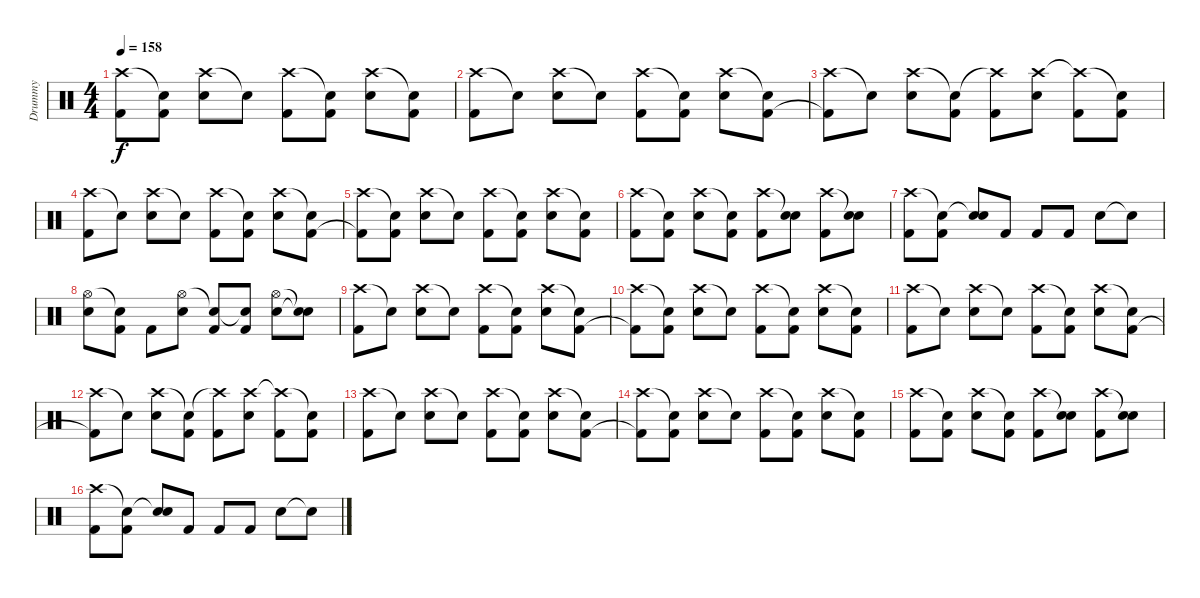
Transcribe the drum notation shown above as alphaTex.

\track ("Drummy" "Drummy") {instrument percussion bank 127}
\staff {score}
\articulation defaults
\ts (4 4)
\tempo 158
\clef neutral
\ks c
("Crash high (hit)" "Kick (hit) 2"{t}).8{dy f} ("Snare (hit)"{t} "Kick (hit) 2").8 ("Crash high (hit)" "Electric Snare (hit)").8 "Snare (hit)"{t}.8 ("Crash high (hit)" "Kick (hit) 2").8 ("Snare (hit)"{t} "Kick (hit) 2").8 ("Crash high (hit)" "Electric Snare (hit)").8 ("Snare (hit)"{t} "Kick (hit) 2").8 |
("Crash high (hit)" "Kick (hit) 2").8 "Snare (hit)"{t}.8 ("Crash high (hit)" "Electric Snare (hit)").8 "Snare (hit)"{t}.8 ("Crash high (hit)" "Kick (hit) 2").8 ("Snare (hit)"{t} "Kick (hit) 2").8 ("Crash high (hit)" "Electric Snare (hit)").8 ("Snare (hit)"{t} "Kick (hit) 2").8 |
("Crash high (hit)" "Kick (hit) 2"{t}).8 "Snare (hit)"{t}.8 ("Crash high (hit)" "Electric Snare (hit)").8 ("Snare (hit)"{t} "Kick (hit) 2").8 ("Crash high (hit)"{t} "Kick (hit) 2").8 ("Crash high (hit)" "Electric Snare (hit)").8 ("Crash high (hit)"{t} "Kick (hit) 2").8 ("Snare (hit)"{t} "Kick (hit) 2").8 |
("Crash high (hit)" "Kick (hit) 2").8 "Snare (hit)"{t}.8 ("Crash high (hit)" "Electric Snare (hit)").8 "Snare (hit)"{t}.8 ("Crash high (hit)" "Kick (hit) 2").8 ("Snare (hit)"{t} "Kick (hit) 2").8 ("Crash high (hit)" "Electric Snare (hit)").8 ("Snare (hit)"{t} "Kick (hit) 2").8 |
("Crash high (hit)" "Kick (hit) 2"{t}).8 ("Snare (hit)"{t} "Kick (hit) 2").8 ("Crash high (hit)" "Electric Snare (hit)").8 "Snare (hit)"{t}.8 ("Crash high (hit)" "Kick (hit) 2").8 ("Snare (hit)"{t} "Kick (hit) 2").8 ("Crash high (hit)" "Electric Snare (hit)").8 ("Snare (hit)"{t} "Kick (hit) 2").8 |
("Crash high (hit)" "Kick (hit) 2").8 ("Snare (hit)"{t} "Kick (hit) 2").8 ("Crash high (hit)" "Electric Snare (hit)").8 ("Snare (hit)"{t} "Kick (hit) 2").8 ("Crash high (hit)" "Kick (hit) 2").8 ("Snare (hit)"{t} "Electric Snare (hit)").8 ("Crash high (hit)" "Kick (hit) 2").8 ("Snare (hit)"{t} "Electric Snare (hit)").8 |
("Crash high (hit)" "Kick (hit) 2").8 ("Snare (hit)"{t} "Kick (hit) 2").8 ("Snare (hit)"{t} "Electric Snare (hit)").8 "Kick (hit) 2".8 "Kick (hit) 2".8 "Kick (hit) 2".8 "Electric Snare (hit)".8 "Snare (hit)"{t}.8 |
("Hi-Hat (open)" "Electric Snare (hit)").8 ("Snare (hit)"{t} "Kick (hit) 2").8 "Kick (hit) 2".8 ("Hi-Hat (open)" "Electric Snare (hit)").8 ("Snare (hit)"{t} "Kick (hit) 2").8 ("Snare (hit)"{t} "Kick (hit) 2").8 ("Hi-Hat (open)" "Electric Snare (hit)").8 ("Snare (hit)"{t} "Snare (hit)"{t}).8 |
("Crash high (hit)" "Kick (hit) 2").8 "Snare (hit)"{t}.8 ("Crash high (hit)" "Electric Snare (hit)").8 "Snare (hit)"{t}.8 ("Crash high (hit)" "Kick (hit) 2").8 ("Snare (hit)"{t} "Kick (hit) 2").8 ("Crash high (hit)" "Electric Snare (hit)").8 ("Snare (hit)"{t} "Kick (hit) 2").8 |
("Crash high (hit)" "Kick (hit) 2"{t}).8 ("Snare (hit)"{t} "Kick (hit) 2").8 ("Crash high (hit)" "Electric Snare (hit)").8 "Snare (hit)"{t}.8 ("Crash high (hit)" "Kick (hit) 2").8 ("Snare (hit)"{t} "Kick (hit) 2").8 ("Crash high (hit)" "Electric Snare (hit)").8 ("Snare (hit)"{t} "Kick (hit) 2").8 |
("Crash high (hit)" "Kick (hit) 2").8 "Snare (hit)"{t}.8 ("Crash high (hit)" "Electric Snare (hit)").8 "Snare (hit)"{t}.8 ("Crash high (hit)" "Kick (hit) 2").8 ("Snare (hit)"{t} "Kick (hit) 2").8 ("Crash high (hit)" "Electric Snare (hit)").8 ("Snare (hit)"{t} "Kick (hit) 2").8 |
("Crash high (hit)" "Kick (hit) 2"{t}).8 "Snare (hit)"{t}.8 ("Crash high (hit)" "Electric Snare (hit)").8 ("Snare (hit)"{t} "Kick (hit) 2").8 ("Crash high (hit)"{t} "Kick (hit) 2").8 ("Crash high (hit)" "Electric Snare (hit)").8 ("Crash high (hit)"{t} "Kick (hit) 2").8 ("Snare (hit)"{t} "Kick (hit) 2").8 |
("Crash high (hit)" "Kick (hit) 2").8 "Snare (hit)"{t}.8 ("Crash high (hit)" "Electric Snare (hit)").8 "Snare (hit)"{t}.8 ("Crash high (hit)" "Kick (hit) 2").8 ("Snare (hit)"{t} "Kick (hit) 2").8 ("Crash high (hit)" "Electric Snare (hit)").8 ("Snare (hit)"{t} "Kick (hit) 2").8 |
("Crash high (hit)" "Kick (hit) 2"{t}).8 ("Snare (hit)"{t} "Kick (hit) 2").8 ("Crash high (hit)" "Electric Snare (hit)").8 "Snare (hit)"{t}.8 ("Crash high (hit)" "Kick (hit) 2").8 ("Snare (hit)"{t} "Kick (hit) 2").8 ("Crash high (hit)" "Electric Snare (hit)").8 ("Snare (hit)"{t} "Kick (hit) 2").8 |
("Crash high (hit)" "Kick (hit) 2").8 ("Snare (hit)"{t} "Kick (hit) 2").8 ("Crash high (hit)" "Electric Snare (hit)").8 ("Snare (hit)"{t} "Kick (hit) 2").8 ("Crash high (hit)" "Kick (hit) 2").8 ("Snare (hit)"{t} "Electric Snare (hit)").8 ("Crash high (hit)" "Kick (hit) 2").8 ("Snare (hit)"{t} "Electric Snare (hit)").8 |
("Crash high (hit)" "Kick (hit) 2").8 ("Snare (hit)"{t} "Kick (hit) 2").8 ("Snare (hit)"{t} "Electric Snare (hit)").8 "Kick (hit) 2".8 "Kick (hit) 2".8 "Kick (hit) 2".8 "Electric Snare (hit)".8 "Snare (hit)"{t}.8
